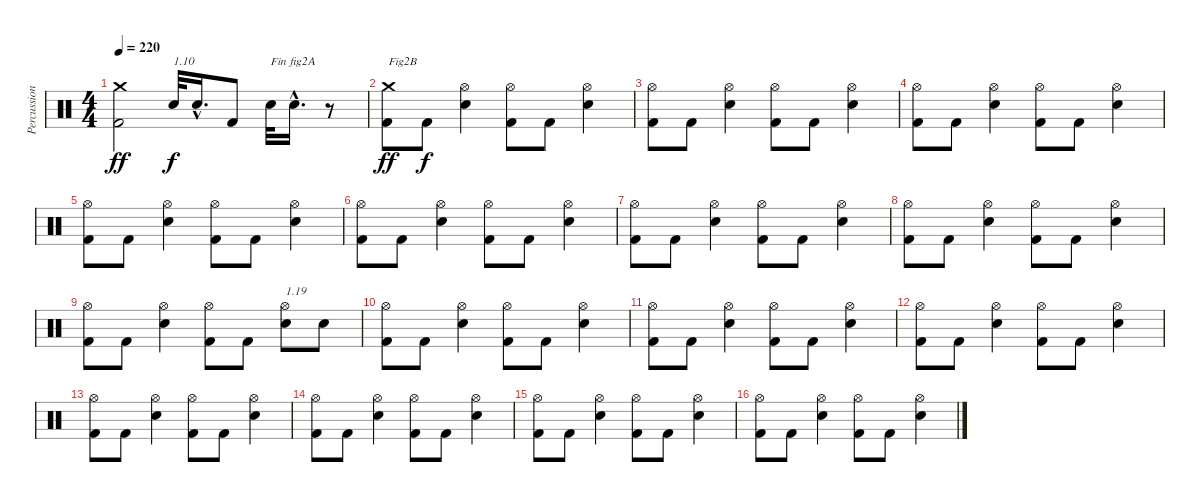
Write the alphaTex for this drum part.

\track ("Percussions" "Percussion") {instrument percussion}
\staff {score}
\articulation defaults
\ts (4 4)
\tempo 220
\clef neutral
\ks c
("Kick (hit) 2" "Crash medium (hit)").2{dy ff} "Electric Snare (hit)".32{txt "1.10" dy f} "Electric Snare (hit)"{hac}.16{d} "Kick (hit) 2".8 "Electric Snare (hit)".32{txt "Fin fig2A"} "Electric Snare (hit)"{hac}.16{d} r.8 |
("Kick (hit) 2" "Crash medium (hit)").8{txt "Fig2B" dy ff} "Kick (hit) 2".8{dy f} ("Electric Snare (hit)" "Hi-Hat (open)").4 ("Kick (hit) 2" "Hi-Hat (open)").8 "Kick (hit) 2".8 ("Electric Snare (hit)" "Hi-Hat (open)").4 |
("Kick (hit) 2" "Hi-Hat (open)").8 "Kick (hit) 2".8 ("Electric Snare (hit)" "Hi-Hat (open)").4 ("Kick (hit) 2" "Hi-Hat (open)").8 "Kick (hit) 2".8 ("Electric Snare (hit)" "Hi-Hat (open)").4 |
("Kick (hit) 2" "Hi-Hat (open)").8 "Kick (hit) 2".8 ("Electric Snare (hit)" "Hi-Hat (open)").4 ("Kick (hit) 2" "Hi-Hat (open)").8 "Kick (hit) 2".8 ("Electric Snare (hit)" "Hi-Hat (open)").4 |
("Kick (hit) 2" "Hi-Hat (open)").8 "Kick (hit) 2".8 ("Electric Snare (hit)" "Hi-Hat (open)").4 ("Kick (hit) 2" "Hi-Hat (open)").8 "Kick (hit) 2".8 ("Electric Snare (hit)" "Hi-Hat (open)").4 |
("Kick (hit) 2" "Hi-Hat (open)").8 "Kick (hit) 2".8 ("Electric Snare (hit)" "Hi-Hat (open)").4 ("Kick (hit) 2" "Hi-Hat (open)").8 "Kick (hit) 2".8 ("Electric Snare (hit)" "Hi-Hat (open)").4 |
("Kick (hit) 2" "Hi-Hat (open)").8 "Kick (hit) 2".8 ("Electric Snare (hit)" "Hi-Hat (open)").4 ("Kick (hit) 2" "Hi-Hat (open)").8 "Kick (hit) 2".8 ("Electric Snare (hit)" "Hi-Hat (open)").4 |
("Kick (hit) 2" "Hi-Hat (open)").8 "Kick (hit) 2".8 ("Electric Snare (hit)" "Hi-Hat (open)").4 ("Kick (hit) 2" "Hi-Hat (open)").8 "Kick (hit) 2".8 ("Electric Snare (hit)" "Hi-Hat (open)").4 |
("Kick (hit) 2" "Hi-Hat (open)").8 "Kick (hit) 2".8 ("Electric Snare (hit)" "Hi-Hat (open)").4 ("Kick (hit) 2" "Hi-Hat (open)").8 "Kick (hit) 2".8 ("Electric Snare (hit)" "Hi-Hat (open)").8{txt "1.19"} "Electric Snare (hit)".8 |
("Kick (hit) 2" "Hi-Hat (open)").8 "Kick (hit) 2".8 ("Electric Snare (hit)" "Hi-Hat (open)").4 ("Kick (hit) 2" "Hi-Hat (open)").8 "Kick (hit) 2".8 ("Electric Snare (hit)" "Hi-Hat (open)").4 |
("Kick (hit) 2" "Hi-Hat (open)").8 "Kick (hit) 2".8 ("Electric Snare (hit)" "Hi-Hat (open)").4 ("Kick (hit) 2" "Hi-Hat (open)").8 "Kick (hit) 2".8 ("Electric Snare (hit)" "Hi-Hat (open)").4 |
("Kick (hit) 2" "Hi-Hat (open)").8 "Kick (hit) 2".8 ("Electric Snare (hit)" "Hi-Hat (open)").4 ("Kick (hit) 2" "Hi-Hat (open)").8 "Kick (hit) 2".8 ("Electric Snare (hit)" "Hi-Hat (open)").4 |
("Kick (hit) 2" "Hi-Hat (open)").8 "Kick (hit) 2".8 ("Electric Snare (hit)" "Hi-Hat (open)").4 ("Kick (hit) 2" "Hi-Hat (open)").8 "Kick (hit) 2".8 ("Electric Snare (hit)" "Hi-Hat (open)").4 |
("Kick (hit) 2" "Hi-Hat (open)").8 "Kick (hit) 2".8 ("Electric Snare (hit)" "Hi-Hat (open)").4 ("Kick (hit) 2" "Hi-Hat (open)").8 "Kick (hit) 2".8 ("Electric Snare (hit)" "Hi-Hat (open)").4 |
("Kick (hit) 2" "Hi-Hat (open)").8 "Kick (hit) 2".8 ("Electric Snare (hit)" "Hi-Hat (open)").4 ("Kick (hit) 2" "Hi-Hat (open)").8 "Kick (hit) 2".8 ("Electric Snare (hit)" "Hi-Hat (open)").4 |
("Kick (hit) 2" "Hi-Hat (open)").8 "Kick (hit) 2".8 ("Electric Snare (hit)" "Hi-Hat (open)").4 ("Kick (hit) 2" "Hi-Hat (open)").8 "Kick (hit) 2".8 ("Electric Snare (hit)" "Hi-Hat (open)").4
